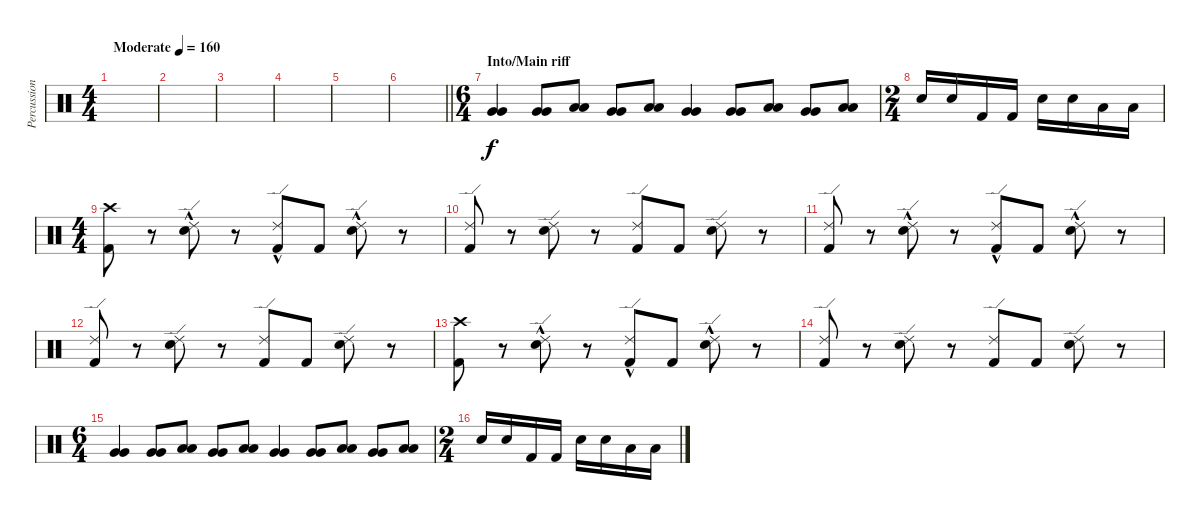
\track ("Percussion" "Percussion") {instrument percussion}
\staff {score}
\articulation defaults
\ts (4 4)
\tempo (160 "Moderate")
\clef neutral
\ks c
|
|
|
|
|
\barLineRight lightlight
|
\ts (6 4)
\section ("" "Into/Main riff")
("Very Low Tom (hit)" "Very Low Tom (hit)").4 ("Very Low Tom (hit)" "Very Low Tom (hit)").8 ("Low Floor Tom (hit)" "Low Floor Tom (hit)").8 ("Very Low Tom (hit)" "Very Low Tom (hit)").8 ("Low Floor Tom (hit)" "Low Floor Tom (hit)").8 ("Very Low Tom (hit)" "Very Low Tom (hit)").4 ("Very Low Tom (hit)" "Very Low Tom (hit)").8 ("Low Floor Tom (hit)" "Low Floor Tom (hit)").8 ("Very Low Tom (hit)" "Very Low Tom (hit)").8 ("Low Tom (hit)" "Low Tom (hit)").8 |
\ts (2 4)
"Electric Snare (hit)".16 "Electric Snare (hit)".16 "Kick (hit) 2".16 "Kick (hit) 2".16 "Electric Snare (hit)".16 "Electric Snare (hit)".16 "Low Tom (hit)".16 "Low Tom (hit)".16 |
\ts (4 4)
("Crash high (hit)" "Kick (hit) 2").8 r.8 ("Ride (edge) 2"{hac} "Electric Snare (hit)").8 r.8 ("Ride (edge) 2"{hac} "Kick (hit) 2").8 "Kick (hit) 2".8 ("Ride (edge) 2"{hac} "Electric Snare (hit)").8 r.8 |
("Ride (edge) 2" "Kick (hit) 2").8 r.8 ("Ride (edge) 2" "Electric Snare (hit)").8 r.8 ("Ride (edge) 2" "Kick (hit) 2").8 "Kick (hit) 2".8 ("Ride (edge) 2" "Electric Snare (hit)").8 r.8 |
("Ride (edge) 2" "Kick (hit) 2").8 r.8 ("Ride (edge) 2"{hac} "Electric Snare (hit)").8 r.8 ("Ride (edge) 2"{hac} "Kick (hit) 2").8 "Kick (hit) 2".8 ("Ride (edge) 2"{hac} "Electric Snare (hit)").8 r.8 |
("Ride (edge) 2" "Kick (hit) 2").8 r.8 ("Ride (edge) 2" "Electric Snare (hit)").8 r.8 ("Ride (edge) 2" "Kick (hit) 2").8 "Kick (hit) 2".8 ("Ride (edge) 2" "Electric Snare (hit)").8 r.8 |
("Crash high (hit)" "Kick (hit) 2").8 r.8 ("Ride (edge) 2"{hac} "Electric Snare (hit)").8 r.8 ("Ride (edge) 2"{hac} "Kick (hit) 2").8 "Kick (hit) 2".8 ("Ride (edge) 2"{hac} "Electric Snare (hit)").8 r.8 |
("Ride (edge) 2" "Kick (hit) 2").8 r.8 ("Ride (edge) 2" "Electric Snare (hit)").8 r.8 ("Ride (edge) 2" "Kick (hit) 2").8 "Kick (hit) 2".8 ("Ride (edge) 2" "Electric Snare (hit)").8 r.8 |
\ts (6 4)
("Very Low Tom (hit)" "Very Low Tom (hit)").4 ("Very Low Tom (hit)" "Very Low Tom (hit)").8 ("Low Floor Tom (hit)" "Low Floor Tom (hit)").8 ("Very Low Tom (hit)" "Very Low Tom (hit)").8 ("Low Floor Tom (hit)" "Low Floor Tom (hit)").8 ("Very Low Tom (hit)" "Very Low Tom (hit)").4 ("Very Low Tom (hit)" "Very Low Tom (hit)").8 ("Low Floor Tom (hit)" "Low Floor Tom (hit)").8 ("Very Low Tom (hit)" "Very Low Tom (hit)").8 ("Low Tom (hit)" "Low Tom (hit)").8 |
\ts (2 4)
"Electric Snare (hit)".16 "Electric Snare (hit)".16 "Kick (hit) 2".16 "Kick (hit) 2".16 "Electric Snare (hit)".16 "Electric Snare (hit)".16 "Low Tom (hit)".16 "Low Tom (hit)".16
